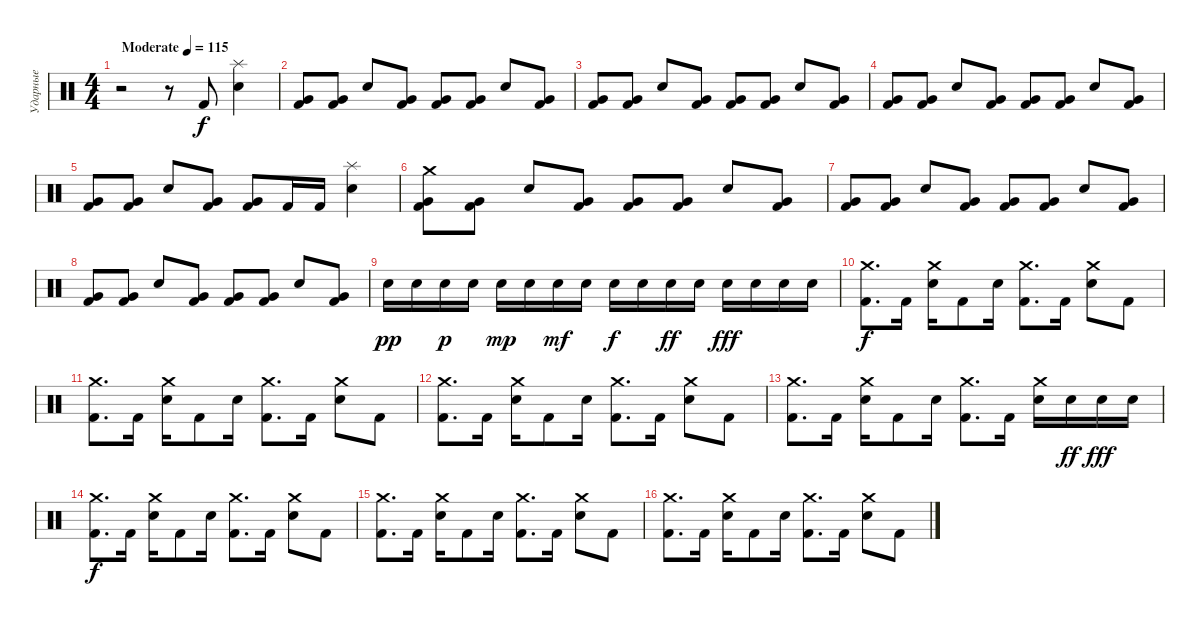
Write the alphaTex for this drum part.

\track ("Ударные" "Ударные") {instrument percussion}
\staff {score}
\articulation defaults
\ts (4 4)
\tempo (115 "Moderate")
\clef neutral
\ks c
r.2{dy f} r.8 "Kick (hit) 2".8 ("Snare (hit) 2" "Splash (hit)").4 |
("Very Low Tom (hit)" "Kick (hit) 2").8 ("Very Low Tom (hit)" "Kick (hit) 2").8 "Snare (hit) 2".8 ("Very Low Tom (hit)" "Kick (hit) 2").8 ("Very Low Tom (hit)" "Kick (hit) 2").8 ("Very Low Tom (hit)" "Kick (hit) 2").8 "Snare (hit) 2".8 ("Very Low Tom (hit)" "Kick (hit) 2").8 |
("Very Low Tom (hit)" "Kick (hit) 2").8 ("Very Low Tom (hit)" "Kick (hit) 2").8 "Snare (hit) 2".8 ("Very Low Tom (hit)" "Kick (hit) 2").8 ("Very Low Tom (hit)" "Kick (hit) 2").8 ("Very Low Tom (hit)" "Kick (hit) 2").8 "Snare (hit) 2".8 ("Very Low Tom (hit)" "Kick (hit) 2").8 |
("Very Low Tom (hit)" "Kick (hit) 2").8 ("Very Low Tom (hit)" "Kick (hit) 2").8 "Snare (hit) 2".8 ("Very Low Tom (hit)" "Kick (hit) 2").8 ("Very Low Tom (hit)" "Kick (hit) 2").8 ("Very Low Tom (hit)" "Kick (hit) 2").8 "Snare (hit) 2".8 ("Very Low Tom (hit)" "Kick (hit) 2").8 |
("Very Low Tom (hit)" "Kick (hit) 2").8 ("Very Low Tom (hit)" "Kick (hit) 2").8 "Snare (hit) 2".8 ("Very Low Tom (hit)" "Kick (hit) 2").8 ("Very Low Tom (hit)" "Kick (hit) 2").8 "Kick (hit) 2".16 "Kick (hit) 2".16 ("Snare (hit) 2" "Splash (hit)").4 |
("Very Low Tom (hit)" "Kick (hit) 2" "Crash medium (hit)").8 ("Very Low Tom (hit)" "Kick (hit) 2").8 "Snare (hit) 2".8 ("Very Low Tom (hit)" "Kick (hit) 2").8 ("Very Low Tom (hit)" "Kick (hit) 2").8 ("Very Low Tom (hit)" "Kick (hit) 2").8 "Snare (hit) 2".8 ("Very Low Tom (hit)" "Kick (hit) 2").8 |
("Very Low Tom (hit)" "Kick (hit) 2").8 ("Very Low Tom (hit)" "Kick (hit) 2").8 "Snare (hit) 2".8 ("Very Low Tom (hit)" "Kick (hit) 2").8 ("Very Low Tom (hit)" "Kick (hit) 2").8 ("Very Low Tom (hit)" "Kick (hit) 2").8 "Snare (hit) 2".8 ("Very Low Tom (hit)" "Kick (hit) 2").8 |
("Very Low Tom (hit)" "Kick (hit) 2").8 ("Very Low Tom (hit)" "Kick (hit) 2").8 "Snare (hit) 2".8 ("Very Low Tom (hit)" "Kick (hit) 2").8 ("Very Low Tom (hit)" "Kick (hit) 2").8 ("Very Low Tom (hit)" "Kick (hit) 2").8 "Snare (hit) 2".8 ("Very Low Tom (hit)" "Kick (hit) 2").8 |
"Snare (hit) 2".16{dy pp} "Snare (hit) 2".16 "Snare (hit) 2".16{dy p} "Snare (hit) 2".16 "Snare (hit) 2".16{dy mp} "Snare (hit) 2".16 "Snare (hit) 2".16{dy mf} "Snare (hit) 2".16 "Snare (hit) 2".16{dy f} "Snare (hit) 2".16 "Snare (hit) 2".16{dy ff} "Snare (hit) 2".16 "Snare (hit) 2".16{dy fff} "Snare (hit) 2".16 "Snare (hit) 2".16 "Snare (hit) 2".16 |
("Kick (hit) 2" "Crash medium (hit)").8{d dy f} "Kick (hit) 2".16 ("Snare (hit) 2" "Crash medium (hit)").16 "Kick (hit) 2".8 "Snare (hit) 2".16 ("Kick (hit) 2" "Crash medium (hit)").8{d} "Kick (hit) 2".16 ("Snare (hit) 2" "Crash medium (hit)").8 "Kick (hit) 2".8 |
("Kick (hit) 2" "Crash medium (hit)").8{d} "Kick (hit) 2".16 ("Snare (hit) 2" "Crash medium (hit)").16 "Kick (hit) 2".8 "Snare (hit) 2".16 ("Kick (hit) 2" "Crash medium (hit)").8{d} "Kick (hit) 2".16 ("Snare (hit) 2" "Crash medium (hit)").8 "Kick (hit) 2".8 |
("Kick (hit) 2" "Crash medium (hit)").8{d} "Kick (hit) 2".16 ("Snare (hit) 2" "Crash medium (hit)").16 "Kick (hit) 2".8 "Snare (hit) 2".16 ("Kick (hit) 2" "Crash medium (hit)").8{d} "Kick (hit) 2".16 ("Snare (hit) 2" "Crash medium (hit)").8 "Kick (hit) 2".8 |
("Kick (hit) 2" "Crash medium (hit)").8{d} "Kick (hit) 2".16 ("Snare (hit) 2" "Crash medium (hit)").16 "Kick (hit) 2".8 "Snare (hit) 2".16 ("Kick (hit) 2" "Crash medium (hit)").8{d} "Kick (hit) 2".16 ("Snare (hit) 2" "Crash medium (hit)").16 "Snare (hit) 2".16{dy ff} "Snare (hit) 2".16{dy fff} "Snare (hit) 2".16 |
("Kick (hit) 2" "Crash medium (hit)").8{d dy f} "Kick (hit) 2".16 ("Snare (hit) 2" "Crash medium (hit)").16 "Kick (hit) 2".8 "Snare (hit) 2".16 ("Kick (hit) 2" "Crash medium (hit)").8{d} "Kick (hit) 2".16 ("Snare (hit) 2" "Crash medium (hit)").8 "Kick (hit) 2".8 |
("Kick (hit) 2" "Crash medium (hit)").8{d} "Kick (hit) 2".16 ("Snare (hit) 2" "Crash medium (hit)").16 "Kick (hit) 2".8 "Snare (hit) 2".16 ("Kick (hit) 2" "Crash medium (hit)").8{d} "Kick (hit) 2".16 ("Snare (hit) 2" "Crash medium (hit)").8 "Kick (hit) 2".8 |
("Kick (hit) 2" "Crash medium (hit)").8{d} "Kick (hit) 2".16 ("Snare (hit) 2" "Crash medium (hit)").16 "Kick (hit) 2".8 "Snare (hit) 2".16 ("Kick (hit) 2" "Crash medium (hit)").8{d} "Kick (hit) 2".16 ("Snare (hit) 2" "Crash medium (hit)").8 "Kick (hit) 2".8
